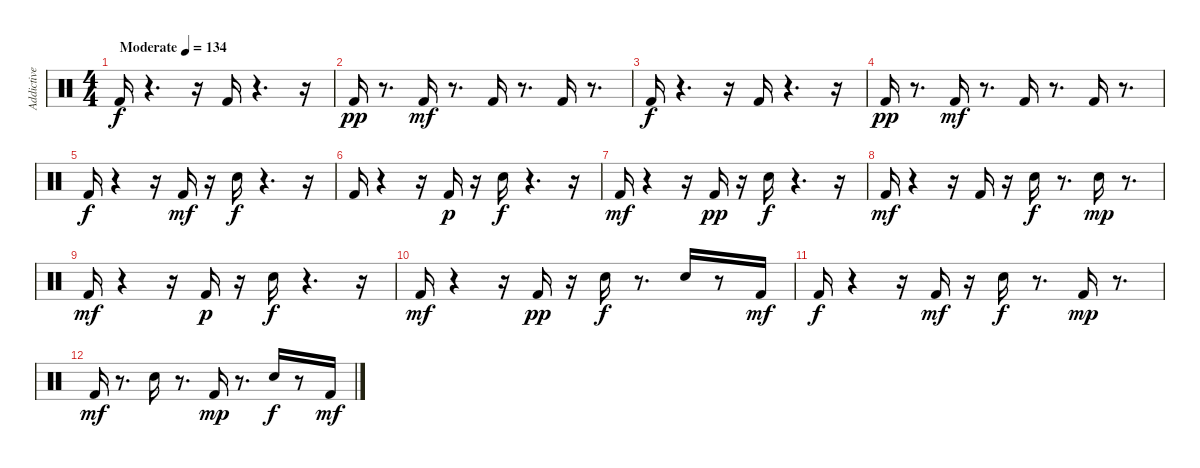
\track ("Addictive Drums 2 x64 1" "Addictive ") {instrument percussion}
\staff {score}
\articulation defaults
\ts (4 4)
\tempo (134 "Moderate")
\clef neutral
\ks c "Kick (hit) 2".16{dy f}
r.4{d} r.16 "Kick (hit) 2".16 r.4{d} r.16 |
"Kick (hit) 2".16{dy pp} r.8{d} "Kick (hit) 2".16{dy mf} r.8{d} "Kick (hit) 2".16 r.8{d} "Kick (hit) 2".16 r.8{d} |
"Kick (hit) 2".16{dy f} r.4{d} r.16 "Kick (hit) 2".16 r.4{d} r.16 |
"Kick (hit) 2".16{dy pp} r.8{d} "Kick (hit) 2".16{dy mf} r.8{d} "Kick (hit) 2".16 r.8{d} "Kick (hit) 2".16 r.8{d} |
"Kick (hit) 2".16{dy f} r.4 r.16 "Kick (hit) 2".16{dy mf} r.16 "Electric Snare (hit)".16{dy f} r.4{d} r.16 |
"Kick (hit) 2".16 r.4 r.16 "Kick (hit) 2".16{dy p} r.16 "Electric Snare (hit)".16{dy f} r.4{d} r.16 |
"Kick (hit) 2".16{dy mf} r.4 r.16 "Kick (hit) 2".16{dy pp} r.16 "Electric Snare (hit)".16{dy f} r.4{d} r.16 |
"Kick (hit) 2".16{dy mf} r.4 r.16 "Kick (hit) 2".16 r.16 "Electric Snare (hit)".16{dy f} r.8{d} "Electric Snare (hit)".16{dy mp} r.8{d} |
"Kick (hit) 2".16{dy mf} r.4 r.16 "Kick (hit) 2".16{dy p} r.16 "Electric Snare (hit)".16{dy f} r.4{d} r.16 |
"Kick (hit) 2".16{dy mf} r.4 r.16 "Kick (hit) 2".16{dy pp} r.16 "Electric Snare (hit)".16{dy f} r.8{d} "Electric Snare (hit)".16 r.8 "Kick (hit) 2".16{dy mf} |
"Kick (hit) 2".16{dy f} r.4 r.16 "Kick (hit) 2".16{dy mf} r.16 "Electric Snare (hit)".16{dy f} r.8{d} "Kick (hit) 2".16{dy mp} r.8{d} |
"Kick (hit) 2".16{dy mf} r.8{d} "Electric Snare (hit)".16 r.8{d} "Kick (hit) 2".16{dy mp} r.8{d} "Electric Snare (hit)".16{dy f} r.8 "Kick (hit) 2".16{dy mf}
